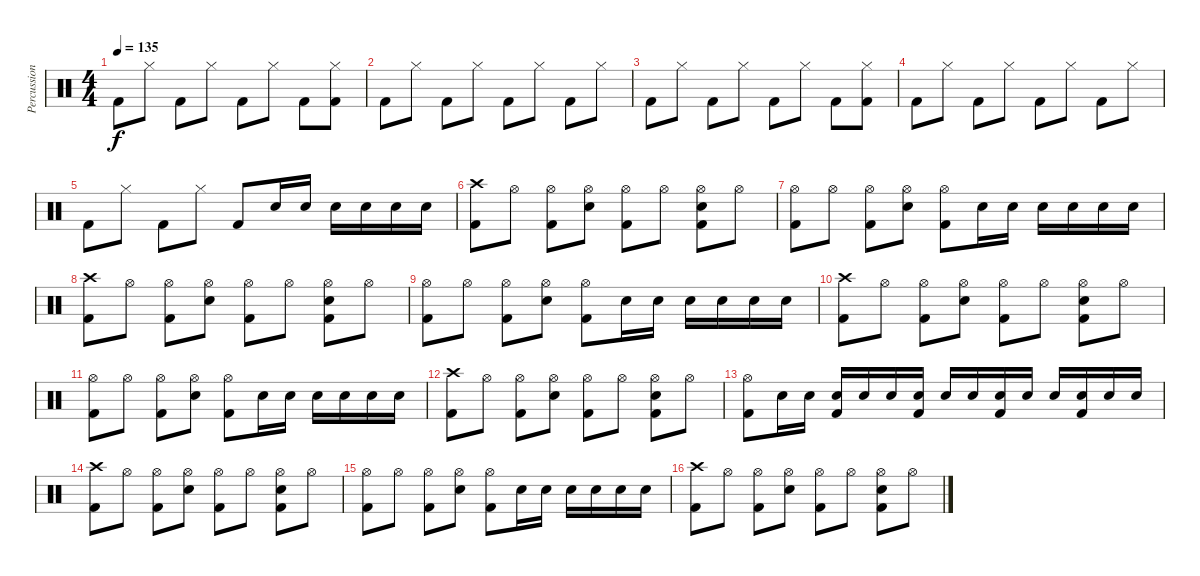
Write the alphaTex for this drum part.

\track ("Percussion" "Percussion") {instrument percussion}
\staff {score}
\articulation defaults
\ts (4 4)
\tempo 135
\clef neutral
\ks c "Kick (hit) 2".8{dy f} "Hi-Hat (closed)".8 "Kick (hit) 2".8 "Hi-Hat (closed)".8 "Kick (hit) 2".8 "Hi-Hat (closed)".8 "Kick (hit) 2".8
("Hi-Hat (closed)" "Kick (hit) 2").8 |
"Kick (hit) 2".8 "Hi-Hat (closed)".8 "Kick (hit) 2".8 "Hi-Hat (closed)".8 "Kick (hit) 2".8 "Hi-Hat (closed)".8 "Kick (hit) 2".8 "Hi-Hat (closed)".8 |
"Kick (hit) 2".8 "Hi-Hat (closed)".8 "Kick (hit) 2".8 "Hi-Hat (closed)".8 "Kick (hit) 2".8 "Hi-Hat (closed)".8 "Kick (hit) 2".8 ("Hi-Hat (closed)" "Kick (hit) 2").8 |
"Kick (hit) 2".8 "Hi-Hat (closed)".8 "Kick (hit) 2".8 "Hi-Hat (closed)".8 "Kick (hit) 2".8 "Hi-Hat (closed)".8 "Kick (hit) 2".8 "Hi-Hat (closed)".8 |
"Kick (hit) 2".8 "Hi-Hat (closed)".8 "Kick (hit) 2".8 "Hi-Hat (closed)".8 "Kick (hit) 2".8 "Electric Snare (hit)".16 "Electric Snare (hit)".16 "Electric Snare (hit)".16 "Electric Snare (hit)".16 "Electric Snare (hit)".16 "Electric Snare (hit)".16 |
("Crash high (hit)" "Kick (hit) 2").8 "Hi-Hat (open)".8 ("Hi-Hat (open)" "Kick (hit) 2").8 ("Electric Snare (hit)" "Hi-Hat (open)").8 ("Hi-Hat (open)" "Kick (hit) 2").8 "Hi-Hat (open)".8 ("Electric Snare (hit)" "Hi-Hat (open)" "Kick (hit) 2").8 "Hi-Hat (open)".8 |
("Hi-Hat (open)" "Kick (hit) 2").8 "Hi-Hat (open)".8 ("Hi-Hat (open)" "Kick (hit) 2").8 ("Electric Snare (hit)" "Hi-Hat (open)").8 ("Hi-Hat (open)" "Kick (hit) 2").8 "Electric Snare (hit)".16 "Electric Snare (hit)".16 "Electric Snare (hit)".16 "Electric Snare (hit)".16 "Electric Snare (hit)".16 "Electric Snare (hit)".16 |
("Crash high (hit)" "Kick (hit) 2").8 "Hi-Hat (open)".8 ("Hi-Hat (open)" "Kick (hit) 2").8 ("Electric Snare (hit)" "Hi-Hat (open)").8 ("Hi-Hat (open)" "Kick (hit) 2").8 "Hi-Hat (open)".8 ("Electric Snare (hit)" "Hi-Hat (open)" "Kick (hit) 2").8 "Hi-Hat (open)".8 |
("Hi-Hat (open)" "Kick (hit) 2").8 "Hi-Hat (open)".8 ("Hi-Hat (open)" "Kick (hit) 2").8 ("Electric Snare (hit)" "Hi-Hat (open)").8 ("Hi-Hat (open)" "Kick (hit) 2").8 "Electric Snare (hit)".16 "Electric Snare (hit)".16 "Electric Snare (hit)".16 "Electric Snare (hit)".16 "Electric Snare (hit)".16 "Electric Snare (hit)".16 |
("Crash high (hit)" "Kick (hit) 2").8 "Hi-Hat (open)".8 ("Hi-Hat (open)" "Kick (hit) 2").8 ("Electric Snare (hit)" "Hi-Hat (open)").8 ("Hi-Hat (open)" "Kick (hit) 2").8 "Hi-Hat (open)".8 ("Electric Snare (hit)" "Hi-Hat (open)" "Kick (hit) 2").8 "Hi-Hat (open)".8 |
("Hi-Hat (open)" "Kick (hit) 2").8 "Hi-Hat (open)".8 ("Hi-Hat (open)" "Kick (hit) 2").8 ("Electric Snare (hit)" "Hi-Hat (open)").8 ("Hi-Hat (open)" "Kick (hit) 2").8 "Electric Snare (hit)".16 "Electric Snare (hit)".16 "Electric Snare (hit)".16 "Electric Snare (hit)".16 "Electric Snare (hit)".16 "Electric Snare (hit)".16 |
("Crash high (hit)" "Kick (hit) 2").8 "Hi-Hat (open)".8 ("Hi-Hat (open)" "Kick (hit) 2").8 ("Electric Snare (hit)" "Hi-Hat (open)").8 ("Hi-Hat (open)" "Kick (hit) 2").8 "Hi-Hat (open)".8 ("Electric Snare (hit)" "Hi-Hat (open)" "Kick (hit) 2").8 "Hi-Hat (open)".8 |
("Hi-Hat (open)" "Kick (hit) 2").8 "Electric Snare (hit)".16 "Electric Snare (hit)".16 ("Electric Snare (hit)" "Kick (hit) 2").16 "Electric Snare (hit)".16 "Electric Snare (hit)".16 ("Electric Snare (hit)" "Kick (hit) 2").16 "Electric Snare (hit)".16 "Electric Snare (hit)".16 ("Electric Snare (hit)" "Kick (hit) 2").16 "Electric Snare (hit)".16 "Electric Snare (hit)".16 ("Electric Snare (hit)" "Kick (hit) 2").16 "Electric Snare (hit)".16 "Electric Snare (hit)".16 |
("Crash high (hit)" "Kick (hit) 2").8 "Hi-Hat (open)".8 ("Hi-Hat (open)" "Kick (hit) 2").8 ("Electric Snare (hit)" "Hi-Hat (open)").8 ("Hi-Hat (open)" "Kick (hit) 2").8 "Hi-Hat (open)".8 ("Electric Snare (hit)" "Hi-Hat (open)" "Kick (hit) 2").8 "Hi-Hat (open)".8 |
("Hi-Hat (open)" "Kick (hit) 2").8 "Hi-Hat (open)".8 ("Hi-Hat (open)" "Kick (hit) 2").8 ("Electric Snare (hit)" "Hi-Hat (open)").8 ("Hi-Hat (open)" "Kick (hit) 2").8 "Electric Snare (hit)".16 "Electric Snare (hit)".16 "Electric Snare (hit)".16 "Electric Snare (hit)".16 "Electric Snare (hit)".16 "Electric Snare (hit)".16 |
("Crash high (hit)" "Kick (hit) 2").8 "Hi-Hat (open)".8 ("Hi-Hat (open)" "Kick (hit) 2").8 ("Electric Snare (hit)" "Hi-Hat (open)").8 ("Hi-Hat (open)" "Kick (hit) 2").8 "Hi-Hat (open)".8 ("Electric Snare (hit)" "Hi-Hat (open)" "Kick (hit) 2").8 "Hi-Hat (open)".8
